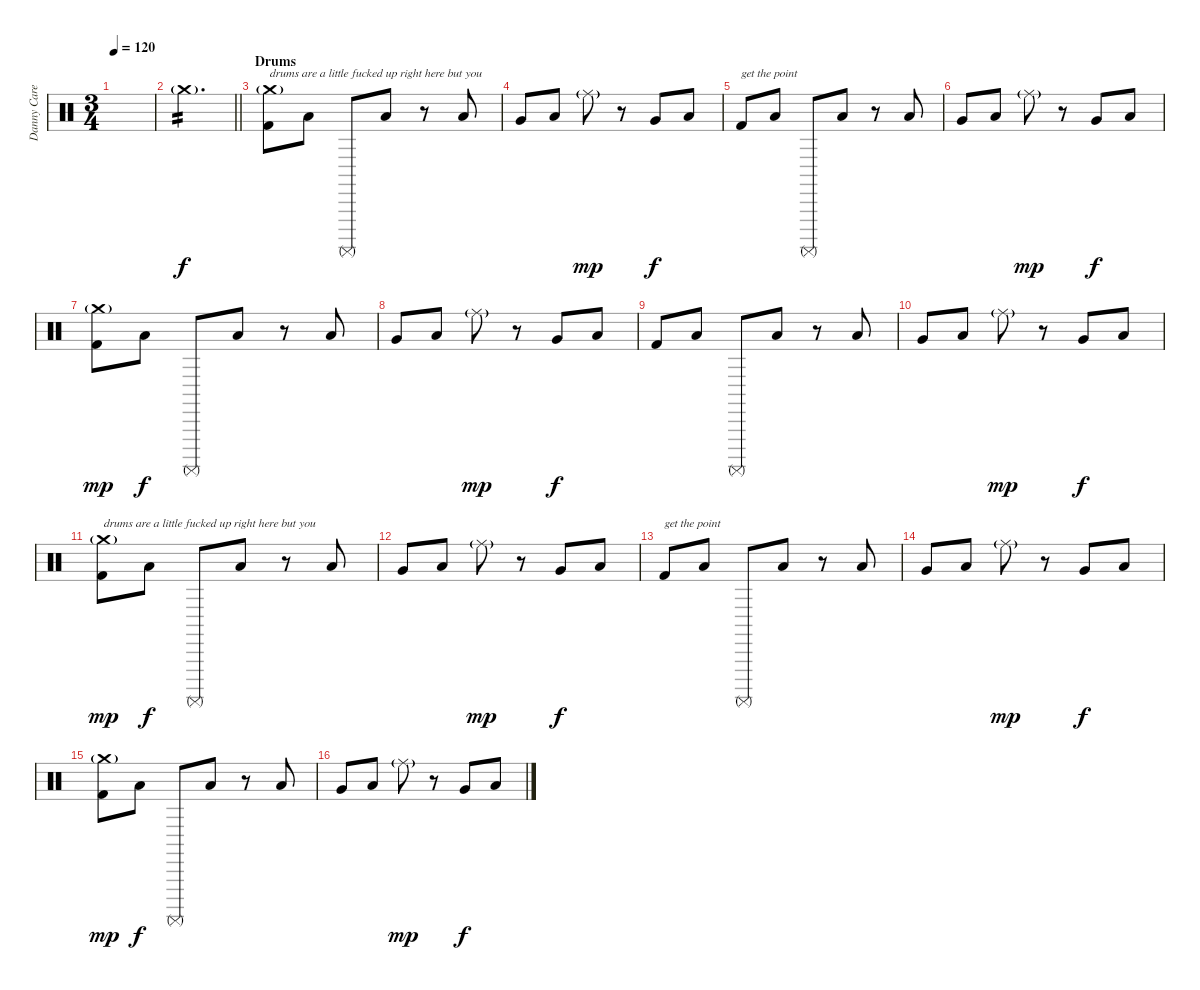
\track ("Danny Carey" "Danny Care") {instrument percussion}
\staff {score}
\articulation defaults
\ts (3 4)
\tempo 120
\clef neutral
\ks c
|
\barLineRight lightlight "Crash medium (hit)"{g}.2{d tp 2 volume 13}
|
\section ("" "Drums")
("Crash medium (hit)"{g} "Kick (hit) 2").8{txt "drums are a little fucked up right here but you"} "Low Tom (hit)".8{dy f} "Surdo (mute)".8 "Low Tom (hit)".8 r.8 "Low Tom (hit)".8 |
"Very Low Tom (hit)".8 "Low Tom (hit)".8 "Ride (middle)"{g}.8{dy mp} r.8 "Very Low Tom (hit)".8{dy f} "Low Floor Tom (hit)".8 |
"Kick (hit) 2".8{txt "get the point"} "Low Tom (hit)".8 "Surdo (mute)".8 "Low Tom (hit)".8 r.8 "Low Tom (hit)".8 |
"Very Low Tom (hit)".8 "Low Tom (hit)".8 "Ride (middle)"{g}.8{dy mp} r.8 "Very Low Tom (hit)".8{dy f} "Low Floor Tom (hit)".8 |
("Crash medium (hit)"{g} "Kick (hit) 2").8{dy mp} "Low Tom (hit)".8{dy f} "Surdo (mute)".8 "Low Tom (hit)".8 r.8 "Low Tom (hit)".8 |
"Very Low Tom (hit)".8 "Low Tom (hit)".8 "Ride (middle)"{g}.8{dy mp} r.8 "Very Low Tom (hit)".8{dy f} "Low Floor Tom (hit)".8 |
"Kick (hit) 2".8 "Low Tom (hit)".8 "Surdo (mute)".8 "Low Tom (hit)".8 r.8 "Low Tom (hit)".8 |
"Very Low Tom (hit)".8 "Low Tom (hit)".8 "Ride (middle)"{g}.8{dy mp} r.8 "Very Low Tom (hit)".8{dy f} "Low Floor Tom (hit)".8 |
("Crash medium (hit)"{g} "Kick (hit) 2").8{txt "drums are a little fucked up right here but you" dy mp} "Low Tom (hit)".8{dy f} "Surdo (mute)".8 "Low Tom (hit)".8 r.8 "Low Tom (hit)".8 |
"Very Low Tom (hit)".8 "Low Tom (hit)".8 "Ride (middle)"{g}.8{dy mp} r.8 "Very Low Tom (hit)".8{dy f} "Low Floor Tom (hit)".8 |
"Kick (hit) 2".8{txt "get the point"} "Low Tom (hit)".8 "Surdo (mute)".8 "Low Tom (hit)".8 r.8 "Low Tom (hit)".8 |
"Very Low Tom (hit)".8 "Low Tom (hit)".8 "Ride (middle)"{g}.8{dy mp} r.8 "Very Low Tom (hit)".8{dy f} "Low Floor Tom (hit)".8 |
("Crash medium (hit)"{g} "Kick (hit) 2").8{dy mp} "Low Tom (hit)".8{dy f} "Surdo (mute)".8 "Low Tom (hit)".8 r.8 "Low Tom (hit)".8 |
"Very Low Tom (hit)".8 "Low Tom (hit)".8 "Ride (middle)"{g}.8{dy mp} r.8 "Very Low Tom (hit)".8{dy f} "Low Floor Tom (hit)".8
